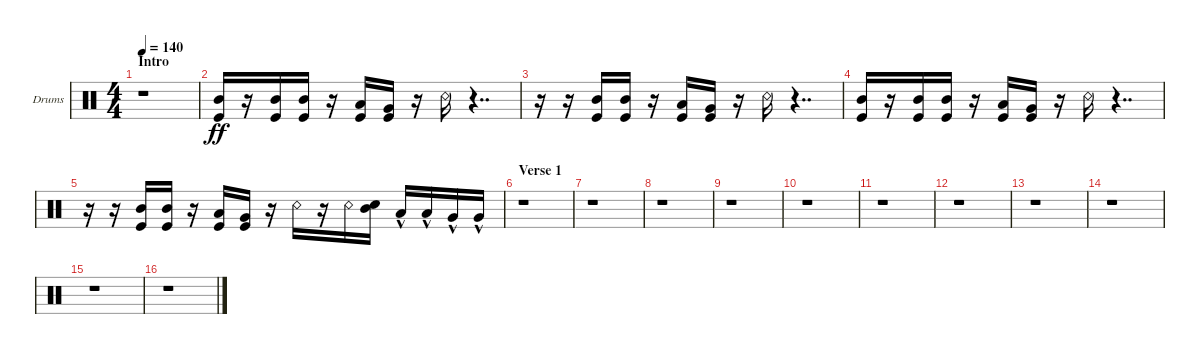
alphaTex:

\defaultSystemsLayout 4
\bracketExtendMode groupsimilarinstruments
\firstSystemTrackNameOrientation horizontal
\otherSystemsTrackNameOrientation horizontal
\track ("Effects (Drums) - (Paul)" "Drums") {instrument percussion}
\staff {score}
\articulation defaults
\ts (4 4)
\section ("" "Intro")
\tempo 140
\clef neutral
\ks c
r.1{dy ff} |
("Mid Tom (hit)" "Kick (hit)").16 r.16 ("Mid Tom (hit)" "Kick (hit)").16 ("Mid Tom (hit)" "Kick (hit)").16 r.16 ("Low Tom (hit)" "Kick (hit)").16 ("Very Low Tom (hit)" "Kick (hit)").16 r.16 "Snare (rim shot)".16 r.4{dd} |
r.16 r.16 ("Mid Tom (hit)" "Kick (hit)").16 ("Mid Tom (hit)" "Kick (hit)").16 r.16 ("Low Tom (hit)" "Kick (hit)").16 ("Very Low Tom (hit)" "Kick (hit)").16 r.16 "Snare (rim shot)".16 r.4{dd} |
("Mid Tom (hit)" "Kick (hit)").16 r.16 ("Mid Tom (hit)" "Kick (hit)").16 ("Mid Tom (hit)" "Kick (hit)").16 r.16 ("Low Tom (hit)" "Kick (hit)").16 ("Very Low Tom (hit)" "Kick (hit)").16 r.16 "Snare (rim shot)".16 r.4{dd} |
r.16 r.16 ("Mid Tom (hit)" "Kick (hit)").16 ("Mid Tom (hit)" "Kick (hit)").16 r.16 ("Low Tom (hit)" "Kick (hit)").16 ("Very Low Tom (hit)" "Kick (hit)").16 r.16 "Snare (rim shot)".16 r.16 "Snare (rim shot)".16 ("Mid Tom (hit)" "Snare (hit) 2").16 "Low Tom (hit)"{hac}.16 "Low Tom (hit)"{hac}.16 "Very Low Tom (hit)"{hac}.16 "Very Low Tom (hit)"{hac}.16 |
\section ("" "Verse 1")
r.1 |
r.1 |
r.1 |
r.1 |
r.1 |
r.1 |
r.1 |
r.1 |
r.1 |
r.1 |
r.1
